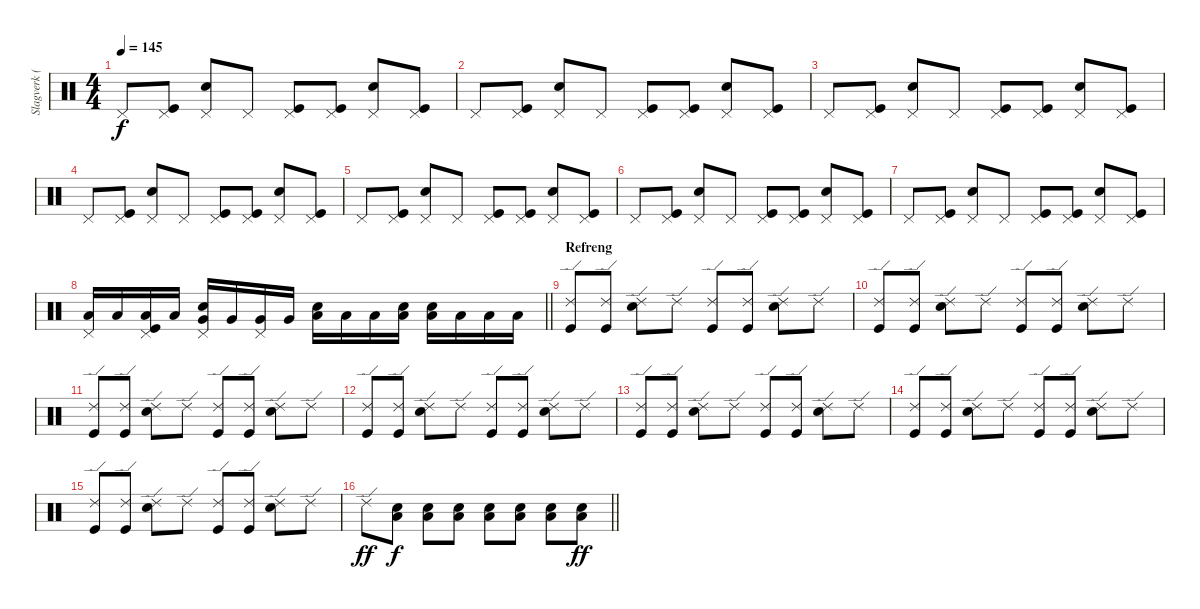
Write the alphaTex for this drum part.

\track ("Slagverk (Jan)" "Slagverk (") {instrument percussion}
\staff {score}
\articulation defaults
\ts (4 4)
\tempo 145
\clef neutral
\ks c "Pedal Hi-Hat (hit)".8{dy f}
("Pedal Hi-Hat (hit)" "Kick (hit)").8 ("Pedal Hi-Hat (hit)" "Snare (hit) 2").8 "Pedal Hi-Hat (hit)".8 ("Pedal Hi-Hat (hit)" "Kick (hit)").8 ("Pedal Hi-Hat (hit)" "Kick (hit)").8 ("Pedal Hi-Hat (hit)" "Snare (hit) 2").8 ("Pedal Hi-Hat (hit)" "Kick (hit)").8 |
"Pedal Hi-Hat (hit)".8 ("Pedal Hi-Hat (hit)" "Kick (hit)").8 ("Pedal Hi-Hat (hit)" "Snare (hit) 2").8 "Pedal Hi-Hat (hit)".8 ("Pedal Hi-Hat (hit)" "Kick (hit)").8 ("Pedal Hi-Hat (hit)" "Kick (hit)").8 ("Pedal Hi-Hat (hit)" "Snare (hit) 2").8 ("Pedal Hi-Hat (hit)" "Kick (hit)").8 |
"Pedal Hi-Hat (hit)".8 ("Pedal Hi-Hat (hit)" "Kick (hit)").8 ("Pedal Hi-Hat (hit)" "Snare (hit) 2").8 "Pedal Hi-Hat (hit)".8 ("Pedal Hi-Hat (hit)" "Kick (hit)").8 ("Pedal Hi-Hat (hit)" "Kick (hit)").8 ("Pedal Hi-Hat (hit)" "Snare (hit) 2").8 ("Pedal Hi-Hat (hit)" "Kick (hit)").8 |
"Pedal Hi-Hat (hit)".8 ("Pedal Hi-Hat (hit)" "Kick (hit)").8 ("Pedal Hi-Hat (hit)" "Snare (hit) 2").8 "Pedal Hi-Hat (hit)".8 ("Pedal Hi-Hat (hit)" "Kick (hit)").8 ("Pedal Hi-Hat (hit)" "Kick (hit)").8 ("Pedal Hi-Hat (hit)" "Snare (hit) 2").8 ("Pedal Hi-Hat (hit)" "Kick (hit)").8 |
"Pedal Hi-Hat (hit)".8 ("Pedal Hi-Hat (hit)" "Kick (hit)").8 ("Pedal Hi-Hat (hit)" "Snare (hit) 2").8 "Pedal Hi-Hat (hit)".8 ("Pedal Hi-Hat (hit)" "Kick (hit)").8 ("Pedal Hi-Hat (hit)" "Kick (hit)").8 ("Pedal Hi-Hat (hit)" "Snare (hit) 2").8 ("Pedal Hi-Hat (hit)" "Kick (hit)").8 |
"Pedal Hi-Hat (hit)".8 ("Pedal Hi-Hat (hit)" "Kick (hit)").8 ("Pedal Hi-Hat (hit)" "Snare (hit) 2").8 "Pedal Hi-Hat (hit)".8 ("Pedal Hi-Hat (hit)" "Kick (hit)").8 ("Pedal Hi-Hat (hit)" "Kick (hit)").8 ("Pedal Hi-Hat (hit)" "Snare (hit) 2").8 ("Pedal Hi-Hat (hit)" "Kick (hit)").8 |
"Pedal Hi-Hat (hit)".8 ("Pedal Hi-Hat (hit)" "Kick (hit)").8 ("Pedal Hi-Hat (hit)" "Snare (hit) 2").8 "Pedal Hi-Hat (hit)".8 ("Pedal Hi-Hat (hit)" "Kick (hit)").8 ("Pedal Hi-Hat (hit)" "Kick (hit)").8 ("Pedal Hi-Hat (hit)" "Snare (hit) 2").8 ("Pedal Hi-Hat (hit)" "Kick (hit)").8 |
\barLineRight lightlight
("Low Tom (hit)" "Pedal Hi-Hat (hit)").16 "Low Tom (hit)".16 ("Low Tom (hit)" "Pedal Hi-Hat (hit)" "Kick (hit)").16 "Low Tom (hit)".16 ("Very Low Tom (hit)" "Pedal Hi-Hat (hit)" "Snare (hit) 2").16 "Very Low Tom (hit)".16 ("Very Low Tom (hit)" "Pedal Hi-Hat (hit)").16 "Very Low Tom (hit)".16 ("Low Floor Tom (hit)" "Snare (hit) 2").16 "Low Floor Tom (hit)".16 "Low Floor Tom (hit)".16 ("Low Floor Tom (hit)" "Snare (hit) 2").16 ("Low Floor Tom (hit)" "Snare (hit) 2").16 "Low Floor Tom (hit)".16 "Low Floor Tom (hit)".16 "Low Floor Tom (hit)".16 |
\section ("" "Refreng")
("Ride (edge) 2" "Kick (hit)").8 ("Ride (edge) 2" "Kick (hit)").8 ("Ride (edge) 2" "Snare (hit) 2").8 "Ride (edge) 2".8 ("Ride (edge) 2" "Kick (hit)").8 ("Ride (edge) 2" "Kick (hit)").8 ("Ride (edge) 2" "Snare (hit) 2").8 "Ride (edge) 2".8 |
("Ride (edge) 2" "Kick (hit)").8 ("Ride (edge) 2" "Kick (hit)").8 ("Ride (edge) 2" "Snare (hit) 2").8 "Ride (edge) 2".8 ("Ride (edge) 2" "Kick (hit)").8 ("Ride (edge) 2" "Kick (hit)").8 ("Ride (edge) 2" "Snare (hit) 2").8 "Ride (edge) 2".8 |
("Ride (edge) 2" "Kick (hit)").8 ("Ride (edge) 2" "Kick (hit)").8 ("Ride (edge) 2" "Snare (hit) 2").8 "Ride (edge) 2".8 ("Ride (edge) 2" "Kick (hit)").8 ("Ride (edge) 2" "Kick (hit)").8 ("Ride (edge) 2" "Snare (hit) 2").8 "Ride (edge) 2".8 |
("Ride (edge) 2" "Kick (hit)").8 ("Ride (edge) 2" "Kick (hit)").8 ("Ride (edge) 2" "Snare (hit) 2").8 "Ride (edge) 2".8 ("Ride (edge) 2" "Kick (hit)").8 ("Ride (edge) 2" "Kick (hit)").8 ("Ride (edge) 2" "Snare (hit) 2").8 "Ride (edge) 2".8 |
("Ride (edge) 2" "Kick (hit)").8 ("Ride (edge) 2" "Kick (hit)").8 ("Ride (edge) 2" "Snare (hit) 2").8 "Ride (edge) 2".8 ("Ride (edge) 2" "Kick (hit)").8 ("Ride (edge) 2" "Kick (hit)").8 ("Ride (edge) 2" "Snare (hit) 2").8 "Ride (edge) 2".8 |
("Ride (edge) 2" "Kick (hit)").8 ("Ride (edge) 2" "Kick (hit)").8 ("Ride (edge) 2" "Snare (hit) 2").8 "Ride (edge) 2".8 ("Ride (edge) 2" "Kick (hit)").8 ("Ride (edge) 2" "Kick (hit)").8 ("Ride (edge) 2" "Snare (hit) 2").8 "Ride (edge) 2".8 |
("Ride (edge) 2" "Kick (hit)").8 ("Ride (edge) 2" "Kick (hit)").8 ("Ride (edge) 2" "Snare (hit) 2").8 "Ride (edge) 2".8 ("Ride (edge) 2" "Kick (hit)").8 ("Ride (edge) 2" "Kick (hit)").8 ("Ride (edge) 2" "Snare (hit) 2").8 "Ride (edge) 2".8 |
\barLineRight lightlight "Ride (edge) 2".8{dy ff}
("Low Floor Tom (hit)" "Snare (hit) 2").8{dy f} ("Low Floor Tom (hit)" "Snare (hit) 2").8 ("Low Floor Tom (hit)" "Snare (hit) 2").8 ("Low Floor Tom (hit)" "Snare (hit) 2").8 ("Low Floor Tom (hit)" "Snare (hit) 2").8 ("Low Floor Tom (hit)" "Snare (hit) 2").8 ("Low Floor Tom (hit)" "Snare (hit) 2").8{dy ff}
